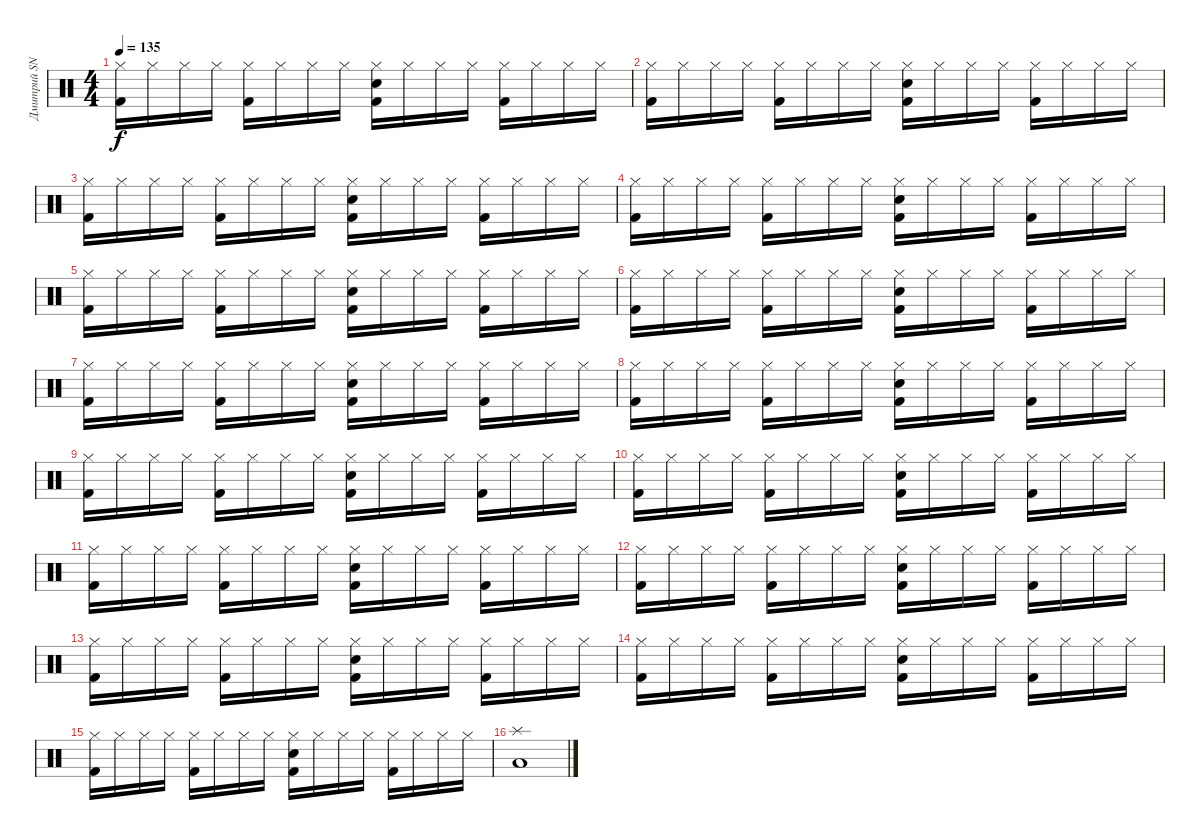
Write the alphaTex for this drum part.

\track ("Дмитрий SNAKE Хакимов" "Дмитрий SN") {instrument percussion}
\staff {score}
\articulation defaults
\ts (4 4)
\tempo 135
\clef neutral
\ks c
("Hi-Hat (closed)" "Kick (hit) 2").16{dy f} "Hi-Hat (closed)".16 "Hi-Hat (closed)".16 "Hi-Hat (closed)".16 ("Hi-Hat (closed)" "Kick (hit) 2").16 "Hi-Hat (closed)".16 "Hi-Hat (closed)".16 "Hi-Hat (closed)".16 ("Hi-Hat (closed)" "Snare (hit) 2" "Kick (hit) 2").16 "Hi-Hat (closed)".16 "Hi-Hat (closed)".16 "Hi-Hat (closed)".16 ("Hi-Hat (closed)" "Kick (hit) 2").16 "Hi-Hat (closed)".16 "Hi-Hat (closed)".16 "Hi-Hat (closed)".16 |
("Hi-Hat (closed)" "Kick (hit) 2").16 "Hi-Hat (closed)".16 "Hi-Hat (closed)".16 "Hi-Hat (closed)".16 ("Hi-Hat (closed)" "Kick (hit) 2").16 "Hi-Hat (closed)".16 "Hi-Hat (closed)".16 "Hi-Hat (closed)".16 ("Hi-Hat (closed)" "Snare (hit) 2" "Kick (hit) 2").16 "Hi-Hat (closed)".16 "Hi-Hat (closed)".16 "Hi-Hat (closed)".16 ("Hi-Hat (closed)" "Kick (hit) 2").16 "Hi-Hat (closed)".16 "Hi-Hat (closed)".16 "Hi-Hat (closed)".16 |
("Hi-Hat (closed)" "Kick (hit) 2").16 "Hi-Hat (closed)".16 "Hi-Hat (closed)".16 "Hi-Hat (closed)".16 ("Hi-Hat (closed)" "Kick (hit) 2").16 "Hi-Hat (closed)".16 "Hi-Hat (closed)".16 "Hi-Hat (closed)".16 ("Hi-Hat (closed)" "Snare (hit) 2" "Kick (hit) 2").16 "Hi-Hat (closed)".16 "Hi-Hat (closed)".16 "Hi-Hat (closed)".16 ("Hi-Hat (closed)" "Kick (hit) 2").16 "Hi-Hat (closed)".16 "Hi-Hat (closed)".16 "Hi-Hat (closed)".16 |
("Hi-Hat (closed)" "Kick (hit) 2").16 "Hi-Hat (closed)".16 "Hi-Hat (closed)".16 "Hi-Hat (closed)".16 ("Hi-Hat (closed)" "Kick (hit) 2").16 "Hi-Hat (closed)".16 "Hi-Hat (closed)".16 "Hi-Hat (closed)".16 ("Hi-Hat (closed)" "Snare (hit) 2" "Kick (hit) 2").16 "Hi-Hat (closed)".16 "Hi-Hat (closed)".16 "Hi-Hat (closed)".16 ("Hi-Hat (closed)" "Kick (hit) 2").16 "Hi-Hat (closed)".16 "Hi-Hat (closed)".16 "Hi-Hat (closed)".16 |
("Hi-Hat (closed)" "Kick (hit) 2").16 "Hi-Hat (closed)".16 "Hi-Hat (closed)".16 "Hi-Hat (closed)".16 ("Hi-Hat (closed)" "Kick (hit) 2").16 "Hi-Hat (closed)".16 "Hi-Hat (closed)".16 "Hi-Hat (closed)".16 ("Hi-Hat (closed)" "Snare (hit) 2" "Kick (hit) 2").16 "Hi-Hat (closed)".16 "Hi-Hat (closed)".16 "Hi-Hat (closed)".16 ("Hi-Hat (closed)" "Kick (hit) 2").16 "Hi-Hat (closed)".16 "Hi-Hat (closed)".16 "Hi-Hat (closed)".16 |
("Hi-Hat (closed)" "Kick (hit) 2").16 "Hi-Hat (closed)".16 "Hi-Hat (closed)".16 "Hi-Hat (closed)".16 ("Hi-Hat (closed)" "Kick (hit) 2").16 "Hi-Hat (closed)".16 "Hi-Hat (closed)".16 "Hi-Hat (closed)".16 ("Hi-Hat (closed)" "Snare (hit) 2" "Kick (hit) 2").16 "Hi-Hat (closed)".16 "Hi-Hat (closed)".16 "Hi-Hat (closed)".16 ("Hi-Hat (closed)" "Kick (hit) 2").16 "Hi-Hat (closed)".16 "Hi-Hat (closed)".16 "Hi-Hat (closed)".16 |
("Hi-Hat (closed)" "Kick (hit) 2").16 "Hi-Hat (closed)".16 "Hi-Hat (closed)".16 "Hi-Hat (closed)".16 ("Hi-Hat (closed)" "Kick (hit) 2").16 "Hi-Hat (closed)".16 "Hi-Hat (closed)".16 "Hi-Hat (closed)".16 ("Hi-Hat (closed)" "Snare (hit) 2" "Kick (hit) 2").16 "Hi-Hat (closed)".16 "Hi-Hat (closed)".16 "Hi-Hat (closed)".16 ("Hi-Hat (closed)" "Kick (hit) 2").16 "Hi-Hat (closed)".16 "Hi-Hat (closed)".16 "Hi-Hat (closed)".16 |
("Hi-Hat (closed)" "Kick (hit) 2").16 "Hi-Hat (closed)".16 "Hi-Hat (closed)".16 "Hi-Hat (closed)".16 ("Hi-Hat (closed)" "Kick (hit) 2").16 "Hi-Hat (closed)".16 "Hi-Hat (closed)".16 "Hi-Hat (closed)".16 ("Hi-Hat (closed)" "Snare (hit) 2" "Kick (hit) 2").16 "Hi-Hat (closed)".16 "Hi-Hat (closed)".16 "Hi-Hat (closed)".16 ("Hi-Hat (closed)" "Kick (hit) 2").16 "Hi-Hat (closed)".16 "Hi-Hat (closed)".16 "Hi-Hat (closed)".16 |
("Hi-Hat (closed)" "Kick (hit) 2").16 "Hi-Hat (closed)".16 "Hi-Hat (closed)".16 "Hi-Hat (closed)".16 ("Hi-Hat (closed)" "Kick (hit) 2").16 "Hi-Hat (closed)".16 "Hi-Hat (closed)".16 "Hi-Hat (closed)".16 ("Hi-Hat (closed)" "Snare (hit) 2" "Kick (hit) 2").16 "Hi-Hat (closed)".16 "Hi-Hat (closed)".16 "Hi-Hat (closed)".16 ("Hi-Hat (closed)" "Kick (hit) 2").16 "Hi-Hat (closed)".16 "Hi-Hat (closed)".16 "Hi-Hat (closed)".16 |
("Hi-Hat (closed)" "Kick (hit) 2").16 "Hi-Hat (closed)".16 "Hi-Hat (closed)".16 "Hi-Hat (closed)".16 ("Hi-Hat (closed)" "Kick (hit) 2").16 "Hi-Hat (closed)".16 "Hi-Hat (closed)".16 "Hi-Hat (closed)".16 ("Hi-Hat (closed)" "Snare (hit) 2" "Kick (hit) 2").16 "Hi-Hat (closed)".16 "Hi-Hat (closed)".16 "Hi-Hat (closed)".16 ("Hi-Hat (closed)" "Kick (hit) 2").16 "Hi-Hat (closed)".16 "Hi-Hat (closed)".16 "Hi-Hat (closed)".16 |
("Hi-Hat (closed)" "Kick (hit) 2").16 "Hi-Hat (closed)".16 "Hi-Hat (closed)".16 "Hi-Hat (closed)".16 ("Hi-Hat (closed)" "Kick (hit) 2").16 "Hi-Hat (closed)".16 "Hi-Hat (closed)".16 "Hi-Hat (closed)".16 ("Hi-Hat (closed)" "Snare (hit) 2" "Kick (hit) 2").16 "Hi-Hat (closed)".16 "Hi-Hat (closed)".16 "Hi-Hat (closed)".16 ("Hi-Hat (closed)" "Kick (hit) 2").16 "Hi-Hat (closed)".16 "Hi-Hat (closed)".16 "Hi-Hat (closed)".16 |
("Hi-Hat (closed)" "Kick (hit) 2").16 "Hi-Hat (closed)".16 "Hi-Hat (closed)".16 "Hi-Hat (closed)".16 ("Hi-Hat (closed)" "Kick (hit) 2").16 "Hi-Hat (closed)".16 "Hi-Hat (closed)".16 "Hi-Hat (closed)".16 ("Hi-Hat (closed)" "Snare (hit) 2" "Kick (hit) 2").16 "Hi-Hat (closed)".16 "Hi-Hat (closed)".16 "Hi-Hat (closed)".16 ("Hi-Hat (closed)" "Kick (hit) 2").16 "Hi-Hat (closed)".16 "Hi-Hat (closed)".16 "Hi-Hat (closed)".16 |
("Hi-Hat (closed)" "Kick (hit) 2").16 "Hi-Hat (closed)".16 "Hi-Hat (closed)".16 "Hi-Hat (closed)".16 ("Hi-Hat (closed)" "Kick (hit) 2").16 "Hi-Hat (closed)".16 "Hi-Hat (closed)".16 "Hi-Hat (closed)".16 ("Hi-Hat (closed)" "Snare (hit) 2" "Kick (hit) 2").16 "Hi-Hat (closed)".16 "Hi-Hat (closed)".16 "Hi-Hat (closed)".16 ("Hi-Hat (closed)" "Kick (hit) 2").16 "Hi-Hat (closed)".16 "Hi-Hat (closed)".16 "Hi-Hat (closed)".16 |
("Hi-Hat (closed)" "Kick (hit) 2").16 "Hi-Hat (closed)".16 "Hi-Hat (closed)".16 "Hi-Hat (closed)".16 ("Hi-Hat (closed)" "Kick (hit) 2").16 "Hi-Hat (closed)".16 "Hi-Hat (closed)".16 "Hi-Hat (closed)".16 ("Hi-Hat (closed)" "Snare (hit) 2" "Kick (hit) 2").16 "Hi-Hat (closed)".16 "Hi-Hat (closed)".16 "Hi-Hat (closed)".16 ("Hi-Hat (closed)" "Kick (hit) 2").16 "Hi-Hat (closed)".16 "Hi-Hat (closed)".16 "Hi-Hat (closed)".16 |
("Hi-Hat (closed)" "Kick (hit) 2").16 "Hi-Hat (closed)".16 "Hi-Hat (closed)".16 "Hi-Hat (closed)".16 ("Hi-Hat (closed)" "Kick (hit) 2").16 "Hi-Hat (closed)".16 "Hi-Hat (closed)".16 "Hi-Hat (closed)".16 ("Hi-Hat (closed)" "Snare (hit) 2" "Kick (hit) 2").16 "Hi-Hat (closed)".16 "Hi-Hat (closed)".16 "Hi-Hat (closed)".16 ("Hi-Hat (closed)" "Kick (hit) 2").16 "Hi-Hat (closed)".16 "Hi-Hat (closed)".16 "Hi-Hat (closed)".16 |
("Splash (hit)" "Low Floor Tom (hit)").1
